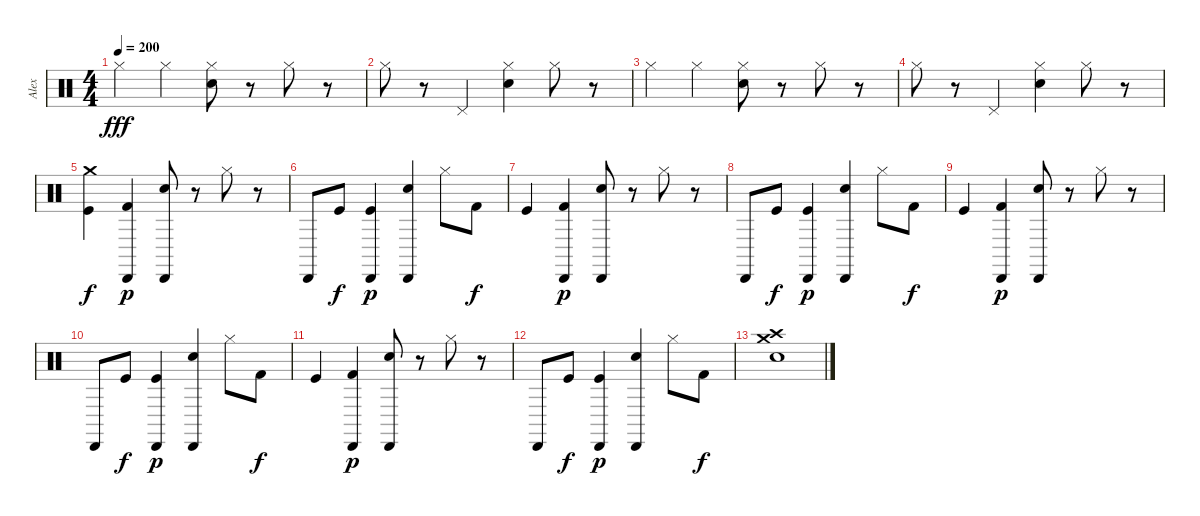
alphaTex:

\track ("Alex" "Alex") {instrument percussion}
\staff {score}
\articulation defaults
\ts (4 4)
\tempo 200
\clef neutral
\ks c "Hi-Hat (closed)".4{dy fff} "Hi-Hat (closed)".4
("Electric Snare (hit)" "Hi-Hat (closed)").8 r.8 "Hi-Hat (closed)".8 r.8 |
"Hi-Hat (closed)".8 r.8 "Pedal Hi-Hat (hit)".4 ("Electric Snare (hit)" "Hi-Hat (closed)").4 "Hi-Hat (closed)".8 r.8 |
"Hi-Hat (closed)".4 "Hi-Hat (closed)".4 ("Electric Snare (hit)" "Hi-Hat (closed)").8 r.8 "Hi-Hat (closed)".8 r.8 |
"Hi-Hat (closed)".8 r.8 "Pedal Hi-Hat (hit)".4 ("Electric Snare (hit)" "Hi-Hat (closed)").4 "Hi-Hat (closed)".8 r.8 |
("Crash medium (hit)" "Kick (hit)").4{dy f} ("Kick (hit) 2" "Cabasa (hit)").4{dy p} ("Electric Snare (hit)" "Cabasa (hit)").8 r.8 "Hi-Hat (closed)".8 r.8 |
"Cabasa (hit)".8 "Kick (hit)".8{dy f} ("Kick (hit)" "Cabasa (hit)").4{dy p} ("Electric Snare (hit)" "Cabasa (hit)").4 "Hi-Hat (closed)".8 "Kick (hit) 2".8{dy f} |
"Kick (hit)".4 ("Kick (hit) 2" "Cabasa (hit)").4{dy p} ("Electric Snare (hit)" "Cabasa (hit)").8 r.8 "Hi-Hat (closed)".8 r.8 |
"Cabasa (hit)".8 "Kick (hit)".8{dy f} ("Kick (hit)" "Cabasa (hit)").4{dy p} ("Electric Snare (hit)" "Cabasa (hit)").4 "Hi-Hat (closed)".8 "Kick (hit) 2".8{dy f} |
"Kick (hit)".4 ("Kick (hit) 2" "Cabasa (hit)").4{dy p} ("Electric Snare (hit)" "Cabasa (hit)").8 r.8 "Hi-Hat (closed)".8 r.8 |
"Cabasa (hit)".8 "Kick (hit)".8{dy f} ("Kick (hit)" "Cabasa (hit)").4{dy p} ("Electric Snare (hit)" "Cabasa (hit)").4 "Hi-Hat (closed)".8 "Kick (hit) 2".8{dy f} |
"Kick (hit)".4 ("Kick (hit) 2" "Cabasa (hit)").4{dy p} ("Electric Snare (hit)" "Cabasa (hit)").8 r.8 "Hi-Hat (closed)".8 r.8 |
"Cabasa (hit)".8 "Kick (hit)".8{dy f} ("Kick (hit)" "Cabasa (hit)").4{dy p} ("Electric Snare (hit)" "Cabasa (hit)").4 "Hi-Hat (closed)".8 "Kick (hit) 2".8{dy f} |
("Crash medium (hit)" "Snare (hit) 2" "Crash high (hit)").1
